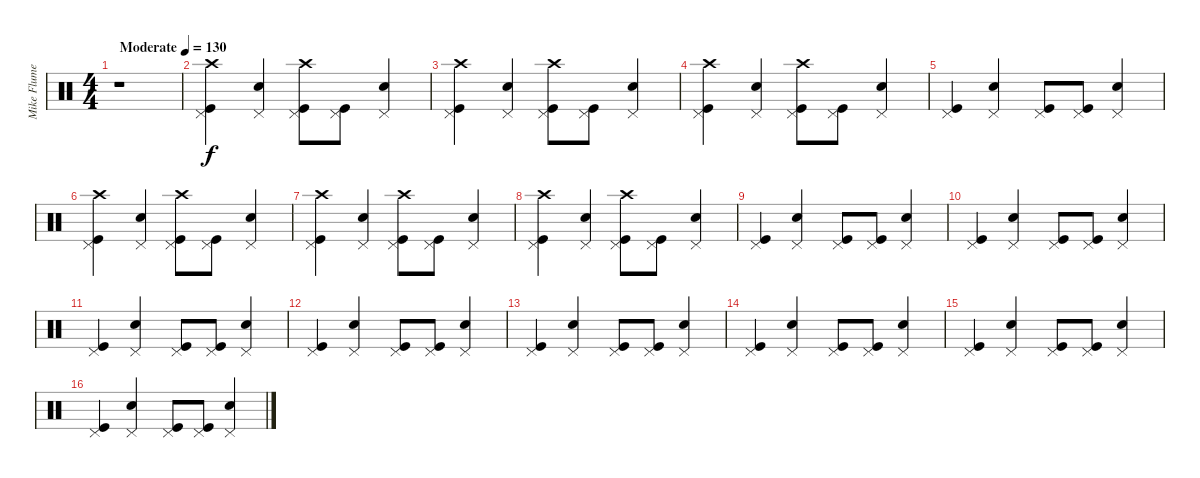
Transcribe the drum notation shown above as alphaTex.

\track ("Mike Flumee" "Mike Flume") {instrument percussion}
\staff {score}
\articulation defaults
\ts (4 4)
\tempo (130 "Moderate")
\clef neutral
\ks c
r.1{dy f} |
("Crash high (hit)" "Pedal Hi-Hat (hit)" "Kick (hit)").4 ("Pedal Hi-Hat (hit)" "Electric Snare (hit)").4 ("Crash high (hit)" "Pedal Hi-Hat (hit)" "Kick (hit)").8 ("Pedal Hi-Hat (hit)" "Kick (hit)").8 ("Pedal Hi-Hat (hit)" "Electric Snare (hit)").4 |
("Crash high (hit)" "Pedal Hi-Hat (hit)" "Kick (hit)").4 ("Pedal Hi-Hat (hit)" "Electric Snare (hit)").4 ("Crash high (hit)" "Pedal Hi-Hat (hit)" "Kick (hit)").8 ("Pedal Hi-Hat (hit)" "Kick (hit)").8 ("Pedal Hi-Hat (hit)" "Electric Snare (hit)").4 |
("Crash high (hit)" "Pedal Hi-Hat (hit)" "Kick (hit)").4 ("Pedal Hi-Hat (hit)" "Electric Snare (hit)").4 ("Crash high (hit)" "Pedal Hi-Hat (hit)" "Kick (hit)").8 ("Pedal Hi-Hat (hit)" "Kick (hit)").8 ("Pedal Hi-Hat (hit)" "Electric Snare (hit)").4 |
("Pedal Hi-Hat (hit)" "Kick (hit)").4 ("Pedal Hi-Hat (hit)" "Electric Snare (hit)").4 ("Pedal Hi-Hat (hit)" "Kick (hit)").8 ("Pedal Hi-Hat (hit)" "Kick (hit)").8 ("Pedal Hi-Hat (hit)" "Electric Snare (hit)").4 |
("Crash high (hit)" "Pedal Hi-Hat (hit)" "Kick (hit)").4 ("Pedal Hi-Hat (hit)" "Electric Snare (hit)").4 ("Crash high (hit)" "Pedal Hi-Hat (hit)" "Kick (hit)").8 ("Pedal Hi-Hat (hit)" "Kick (hit)").8 ("Pedal Hi-Hat (hit)" "Electric Snare (hit)").4 |
("Crash high (hit)" "Pedal Hi-Hat (hit)" "Kick (hit)").4 ("Pedal Hi-Hat (hit)" "Electric Snare (hit)").4 ("Crash high (hit)" "Pedal Hi-Hat (hit)" "Kick (hit)").8 ("Pedal Hi-Hat (hit)" "Kick (hit)").8 ("Pedal Hi-Hat (hit)" "Electric Snare (hit)").4 |
("Crash high (hit)" "Pedal Hi-Hat (hit)" "Kick (hit)").4 ("Pedal Hi-Hat (hit)" "Electric Snare (hit)").4 ("Crash high (hit)" "Pedal Hi-Hat (hit)" "Kick (hit)").8 ("Pedal Hi-Hat (hit)" "Kick (hit)").8 ("Pedal Hi-Hat (hit)" "Electric Snare (hit)").4 |
("Pedal Hi-Hat (hit)" "Kick (hit)").4 ("Pedal Hi-Hat (hit)" "Electric Snare (hit)").4 ("Pedal Hi-Hat (hit)" "Kick (hit)").8 ("Pedal Hi-Hat (hit)" "Kick (hit)").8 ("Pedal Hi-Hat (hit)" "Electric Snare (hit)").4 |
("Pedal Hi-Hat (hit)" "Kick (hit)").4 ("Pedal Hi-Hat (hit)" "Electric Snare (hit)").4 ("Pedal Hi-Hat (hit)" "Kick (hit)").8 ("Pedal Hi-Hat (hit)" "Kick (hit)").8 ("Pedal Hi-Hat (hit)" "Electric Snare (hit)").4 |
("Pedal Hi-Hat (hit)" "Kick (hit)").4 ("Pedal Hi-Hat (hit)" "Electric Snare (hit)").4 ("Pedal Hi-Hat (hit)" "Kick (hit)").8 ("Pedal Hi-Hat (hit)" "Kick (hit)").8 ("Pedal Hi-Hat (hit)" "Electric Snare (hit)").4 |
("Pedal Hi-Hat (hit)" "Kick (hit)").4 ("Pedal Hi-Hat (hit)" "Electric Snare (hit)").4 ("Pedal Hi-Hat (hit)" "Kick (hit)").8 ("Pedal Hi-Hat (hit)" "Kick (hit)").8 ("Pedal Hi-Hat (hit)" "Electric Snare (hit)").4 |
("Pedal Hi-Hat (hit)" "Kick (hit)").4 ("Pedal Hi-Hat (hit)" "Electric Snare (hit)").4 ("Pedal Hi-Hat (hit)" "Kick (hit)").8 ("Pedal Hi-Hat (hit)" "Kick (hit)").8 ("Pedal Hi-Hat (hit)" "Electric Snare (hit)").4 |
("Pedal Hi-Hat (hit)" "Kick (hit)").4 ("Pedal Hi-Hat (hit)" "Electric Snare (hit)").4 ("Pedal Hi-Hat (hit)" "Kick (hit)").8 ("Pedal Hi-Hat (hit)" "Kick (hit)").8 ("Pedal Hi-Hat (hit)" "Electric Snare (hit)").4 |
("Pedal Hi-Hat (hit)" "Kick (hit)").4 ("Pedal Hi-Hat (hit)" "Electric Snare (hit)").4 ("Pedal Hi-Hat (hit)" "Kick (hit)").8 ("Pedal Hi-Hat (hit)" "Kick (hit)").8 ("Pedal Hi-Hat (hit)" "Electric Snare (hit)").4 |
("Pedal Hi-Hat (hit)" "Kick (hit)").4 ("Pedal Hi-Hat (hit)" "Electric Snare (hit)").4 ("Pedal Hi-Hat (hit)" "Kick (hit)").8 ("Pedal Hi-Hat (hit)" "Kick (hit)").8 ("Pedal Hi-Hat (hit)" "Electric Snare (hit)").4
